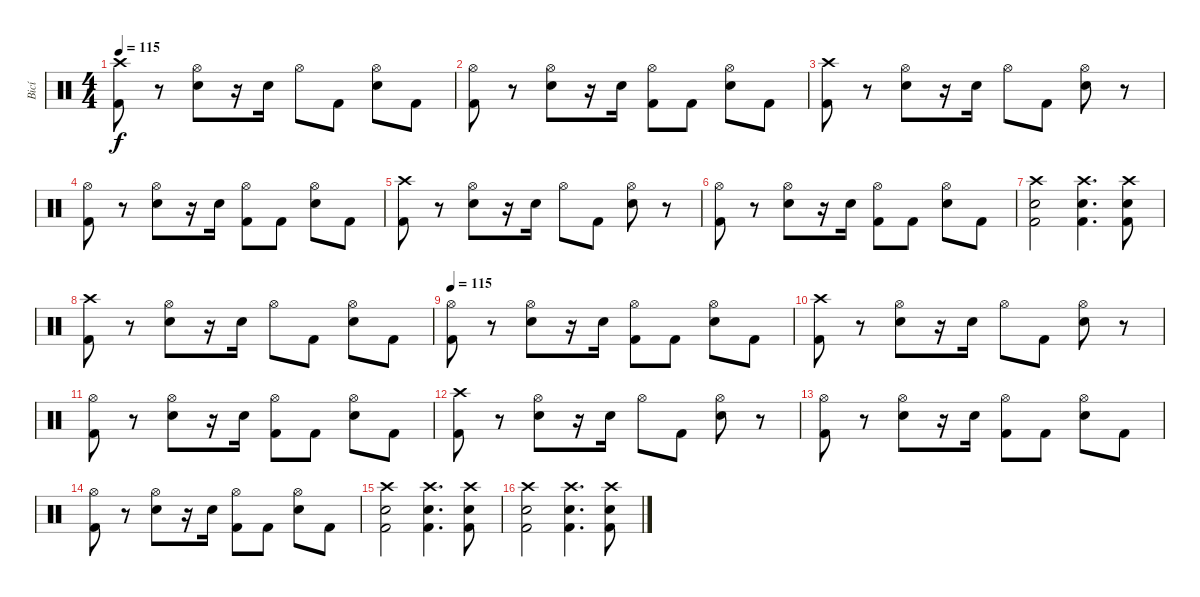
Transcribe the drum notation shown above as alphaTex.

\track ("Bicí" "Bicí") {instrument percussion}
\staff {score}
\articulation defaults
\ts (4 4)
\tempo 115
\clef neutral
\ks c
("Crash high (hit)" "Kick (hit) 2").8{dy f} r.8 ("Hi-Hat (open)" "Snare (hit) 2").8 r.16 "Snare (hit) 2".16 "Hi-Hat (open)".8 "Kick (hit) 2".8 ("Hi-Hat (open)" "Snare (hit) 2").8 "Kick (hit) 2".8 |
("Hi-Hat (open)" "Kick (hit) 2").8 r.8 ("Hi-Hat (open)" "Snare (hit) 2").8 r.16 "Snare (hit) 2".16 ("Hi-Hat (open)" "Kick (hit) 2").8 "Kick (hit) 2".8 ("Hi-Hat (open)" "Snare (hit) 2").8 "Kick (hit) 2".8 |
("Crash high (hit)" "Kick (hit) 2").8 r.8 ("Hi-Hat (open)" "Snare (hit) 2").8 r.16 "Snare (hit) 2".16 "Hi-Hat (open)".8 "Kick (hit) 2".8 ("Hi-Hat (open)" "Snare (hit) 2").8 r.8 |
("Hi-Hat (open)" "Kick (hit) 2").8 r.8 ("Hi-Hat (open)" "Snare (hit) 2").8 r.16 "Snare (hit) 2".16 ("Hi-Hat (open)" "Kick (hit) 2").8 "Kick (hit) 2".8 ("Hi-Hat (open)" "Snare (hit) 2").8 "Kick (hit) 2".8 |
("Crash high (hit)" "Kick (hit) 2").8 r.8 ("Hi-Hat (open)" "Snare (hit) 2").8 r.16 "Snare (hit) 2".16 "Hi-Hat (open)".8 "Kick (hit) 2".8 ("Hi-Hat (open)" "Snare (hit) 2").8 r.8 |
("Hi-Hat (open)" "Kick (hit) 2").8 r.8 ("Hi-Hat (open)" "Snare (hit) 2").8 r.16 "Snare (hit) 2".16 ("Hi-Hat (open)" "Kick (hit) 2").8 "Kick (hit) 2".8 ("Hi-Hat (open)" "Snare (hit) 2").8 "Kick (hit) 2".8 |
("Crash high (hit)" "Snare (hit) 2" "Kick (hit) 2").2 ("Crash high (hit)" "Snare (hit) 2" "Kick (hit) 2").4{d} ("Crash high (hit)" "Snare (hit) 2" "Kick (hit) 2").8 |
("Crash high (hit)" "Kick (hit) 2").8 r.8 ("Hi-Hat (open)" "Snare (hit) 2").8 r.16 "Snare (hit) 2".16 "Hi-Hat (open)".8 "Kick (hit) 2".8 ("Hi-Hat (open)" "Snare (hit) 2").8 "Kick (hit) 2".8 |
\tempo 115
("Hi-Hat (open)" "Kick (hit) 2").8 r.8 ("Hi-Hat (open)" "Snare (hit) 2").8 r.16 "Snare (hit) 2".16 ("Hi-Hat (open)" "Kick (hit) 2").8 "Kick (hit) 2".8 ("Hi-Hat (open)" "Snare (hit) 2").8 "Kick (hit) 2".8 |
("Crash high (hit)" "Kick (hit) 2").8 r.8 ("Hi-Hat (open)" "Snare (hit) 2").8 r.16 "Snare (hit) 2".16 "Hi-Hat (open)".8 "Kick (hit) 2".8 ("Hi-Hat (open)" "Snare (hit) 2").8 r.8 |
("Hi-Hat (open)" "Kick (hit) 2").8 r.8 ("Hi-Hat (open)" "Snare (hit) 2").8 r.16 "Snare (hit) 2".16 ("Hi-Hat (open)" "Kick (hit) 2").8 "Kick (hit) 2".8 ("Hi-Hat (open)" "Snare (hit) 2").8 "Kick (hit) 2".8 |
("Crash high (hit)" "Kick (hit) 2").8 r.8 ("Hi-Hat (open)" "Snare (hit) 2").8 r.16 "Snare (hit) 2".16 "Hi-Hat (open)".8 "Kick (hit) 2".8 ("Hi-Hat (open)" "Snare (hit) 2").8 r.8 |
("Hi-Hat (open)" "Kick (hit) 2").8 r.8 ("Hi-Hat (open)" "Snare (hit) 2").8 r.16 "Snare (hit) 2".16 ("Hi-Hat (open)" "Kick (hit) 2").8 "Kick (hit) 2".8 ("Hi-Hat (open)" "Snare (hit) 2").8 "Kick (hit) 2".8 |
("Hi-Hat (open)" "Kick (hit) 2").8 r.8 ("Hi-Hat (open)" "Snare (hit) 2").8 r.16 "Snare (hit) 2".16 ("Hi-Hat (open)" "Kick (hit) 2").8 "Kick (hit) 2".8 ("Hi-Hat (open)" "Snare (hit) 2").8 "Kick (hit) 2".8 |
("Crash high (hit)" "Snare (hit) 2" "Kick (hit) 2").2 ("Crash high (hit)" "Snare (hit) 2" "Kick (hit) 2").4{d} ("Crash high (hit)" "Snare (hit) 2" "Kick (hit) 2").8 |
("Crash high (hit)" "Snare (hit) 2" "Kick (hit) 2").2 ("Crash high (hit)" "Snare (hit) 2" "Kick (hit) 2").4{d} ("Crash high (hit)" "Snare (hit) 2" "Kick (hit) 2").8
